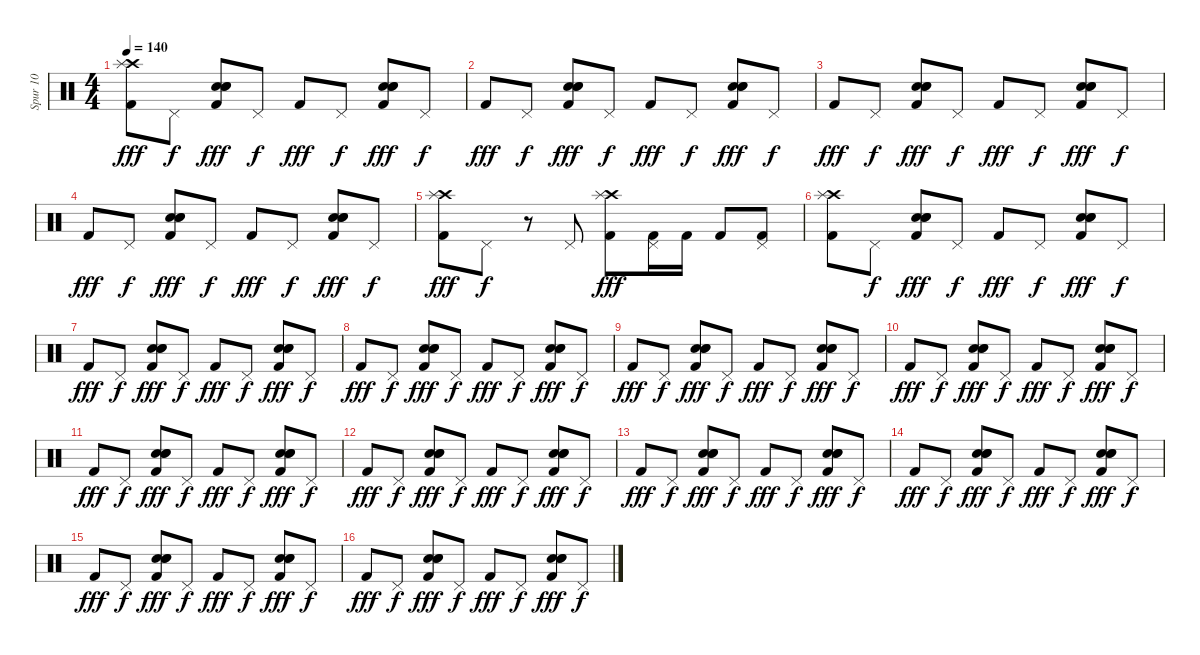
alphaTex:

\track ("Spur 10" "Spur 10") {instrument percussion}
\staff {score}
\articulation defaults
\ts (4 4)
\tempo 140
\clef neutral
\ks c
("Crash high (hit)" "Splash (hit)" "Kick (hit) 2").8{dy fff} "Pedal Hi-Hat (hit)".8{dy f} ("Electric Snare (hit)" "Hand Clap (hit)" "Snare (hit) 2" "Kick (hit) 2").8{dy fff} "Pedal Hi-Hat (hit)".8{dy f} "Kick (hit) 2".8{dy fff} "Pedal Hi-Hat (hit)".8{dy f} ("Electric Snare (hit)" "Hand Clap (hit)" "Snare (hit) 2" "Kick (hit) 2").8{dy fff} "Pedal Hi-Hat (hit)".8{dy f} |
"Kick (hit) 2".8{dy fff} "Pedal Hi-Hat (hit)".8{dy f} ("Electric Snare (hit)" "Hand Clap (hit)" "Snare (hit) 2" "Kick (hit) 2").8{dy fff} "Pedal Hi-Hat (hit)".8{dy f} "Kick (hit) 2".8{dy fff} "Pedal Hi-Hat (hit)".8{dy f} ("Electric Snare (hit)" "Hand Clap (hit)" "Snare (hit) 2" "Kick (hit) 2").8{dy fff} "Pedal Hi-Hat (hit)".8{dy f} |
"Kick (hit) 2".8{dy fff} "Pedal Hi-Hat (hit)".8{dy f} ("Electric Snare (hit)" "Hand Clap (hit)" "Snare (hit) 2" "Kick (hit) 2").8{dy fff} "Pedal Hi-Hat (hit)".8{dy f} "Kick (hit) 2".8{dy fff} "Pedal Hi-Hat (hit)".8{dy f} ("Hand Clap (hit)" "Electric Snare (hit)" "Snare (hit) 2" "Kick (hit) 2").8{dy fff} "Pedal Hi-Hat (hit)".8{dy f} |
"Kick (hit) 2".8{dy fff} "Pedal Hi-Hat (hit)".8{dy f} ("Hand Clap (hit)" "Electric Snare (hit)" "Snare (hit) 2" "Kick (hit) 2").8{dy fff} "Pedal Hi-Hat (hit)".8{dy f} "Kick (hit) 2".8{dy fff} "Pedal Hi-Hat (hit)".8{dy f} ("Electric Snare (hit)" "Hand Clap (hit)" "Snare (hit) 2" "Kick (hit) 2").8{dy fff} "Pedal Hi-Hat (hit)".8{dy f} |
("Crash high (hit)" "Splash (hit)" "Kick (hit) 2").8{dy fff} "Pedal Hi-Hat (hit)".8{dy f} r.8 "Pedal Hi-Hat (hit)".8 ("Crash high (hit)" "Splash (hit)" "Kick (hit) 2").8{dy fff} ("Pedal Hi-Hat (hit)" "Kick (hit) 2").16 "Kick (hit) 2".16 "Kick (hit) 2".8 ("Pedal Hi-Hat (hit)" "Kick (hit) 2").8 |
("Crash high (hit)" "Splash (hit)" "Kick (hit) 2").8 "Pedal Hi-Hat (hit)".8{dy f} ("Hand Clap (hit)" "Electric Snare (hit)" "Snare (hit) 2" "Kick (hit) 2").8{dy fff} "Pedal Hi-Hat (hit)".8{dy f} "Kick (hit) 2".8{dy fff} "Pedal Hi-Hat (hit)".8{dy f} ("Electric Snare (hit)" "Hand Clap (hit)" "Snare (hit) 2" "Kick (hit) 2").8{dy fff} "Pedal Hi-Hat (hit)".8{dy f} |
"Kick (hit) 2".8{dy fff} "Pedal Hi-Hat (hit)".8{dy f} ("Electric Snare (hit)" "Hand Clap (hit)" "Snare (hit) 2" "Kick (hit) 2").8{dy fff} "Pedal Hi-Hat (hit)".8{dy f} "Kick (hit) 2".8{dy fff} "Pedal Hi-Hat (hit)".8{dy f} ("Hand Clap (hit)" "Electric Snare (hit)" "Snare (hit) 2" "Kick (hit) 2").8{dy fff} "Pedal Hi-Hat (hit)".8{dy f} |
"Kick (hit) 2".8{dy fff} "Pedal Hi-Hat (hit)".8{dy f} ("Hand Clap (hit)" "Electric Snare (hit)" "Snare (hit) 2" "Kick (hit) 2").8{dy fff} "Pedal Hi-Hat (hit)".8{dy f} "Kick (hit) 2".8{dy fff} "Pedal Hi-Hat (hit)".8{dy f} ("Electric Snare (hit)" "Hand Clap (hit)" "Snare (hit) 2" "Kick (hit) 2").8{dy fff} "Pedal Hi-Hat (hit)".8{dy f} |
"Kick (hit) 2".8{dy fff} "Pedal Hi-Hat (hit)".8{dy f} ("Hand Clap (hit)" "Electric Snare (hit)" "Snare (hit) 2" "Kick (hit) 2").8{dy fff} "Pedal Hi-Hat (hit)".8{dy f} "Kick (hit) 2".8{dy fff} "Pedal Hi-Hat (hit)".8{dy f} ("Hand Clap (hit)" "Electric Snare (hit)" "Snare (hit) 2" "Kick (hit) 2").8{dy fff} "Pedal Hi-Hat (hit)".8{dy f} |
"Kick (hit) 2".8{dy fff} "Pedal Hi-Hat (hit)".8{dy f} ("Electric Snare (hit)" "Hand Clap (hit)" "Snare (hit) 2" "Kick (hit) 2").8{dy fff} "Pedal Hi-Hat (hit)".8{dy f} "Kick (hit) 2".8{dy fff} "Pedal Hi-Hat (hit)".8{dy f} ("Electric Snare (hit)" "Hand Clap (hit)" "Snare (hit) 2" "Kick (hit) 2").8{dy fff} "Pedal Hi-Hat (hit)".8{dy f} |
"Kick (hit) 2".8{dy fff} "Pedal Hi-Hat (hit)".8{dy f} ("Hand Clap (hit)" "Electric Snare (hit)" "Snare (hit) 2" "Kick (hit) 2").8{dy fff} "Pedal Hi-Hat (hit)".8{dy f} "Kick (hit) 2".8{dy fff} "Pedal Hi-Hat (hit)".8{dy f} ("Electric Snare (hit)" "Hand Clap (hit)" "Snare (hit) 2" "Kick (hit) 2").8{dy fff} "Pedal Hi-Hat (hit)".8{dy f} |
"Kick (hit) 2".8{dy fff} "Pedal Hi-Hat (hit)".8{dy f} ("Hand Clap (hit)" "Electric Snare (hit)" "Snare (hit) 2" "Kick (hit) 2").8{dy fff} "Pedal Hi-Hat (hit)".8{dy f} "Kick (hit) 2".8{dy fff} "Pedal Hi-Hat (hit)".8{dy f} ("Electric Snare (hit)" "Hand Clap (hit)" "Snare (hit) 2" "Kick (hit) 2").8{dy fff} "Pedal Hi-Hat (hit)".8{dy f} |
"Kick (hit) 2".8{dy fff} "Pedal Hi-Hat (hit)".8{dy f} ("Electric Snare (hit)" "Hand Clap (hit)" "Snare (hit) 2" "Kick (hit) 2").8{dy fff} "Pedal Hi-Hat (hit)".8{dy f} "Kick (hit) 2".8{dy fff} "Pedal Hi-Hat (hit)".8{dy f} ("Electric Snare (hit)" "Hand Clap (hit)" "Snare (hit) 2" "Kick (hit) 2").8{dy fff} "Pedal Hi-Hat (hit)".8{dy f} |
"Kick (hit) 2".8{dy fff} "Pedal Hi-Hat (hit)".8{dy f} ("Electric Snare (hit)" "Hand Clap (hit)" "Snare (hit) 2" "Kick (hit) 2").8{dy fff} "Pedal Hi-Hat (hit)".8{dy f} "Kick (hit) 2".8{dy fff} "Pedal Hi-Hat (hit)".8{dy f} ("Electric Snare (hit)" "Hand Clap (hit)" "Snare (hit) 2" "Kick (hit) 2").8{dy fff} "Pedal Hi-Hat (hit)".8{dy f} |
"Kick (hit) 2".8{dy fff} "Pedal Hi-Hat (hit)".8{dy f} ("Electric Snare (hit)" "Hand Clap (hit)" "Snare (hit) 2" "Kick (hit) 2").8{dy fff} "Pedal Hi-Hat (hit)".8{dy f} "Kick (hit) 2".8{dy fff} "Pedal Hi-Hat (hit)".8{dy f} ("Electric Snare (hit)" "Hand Clap (hit)" "Snare (hit) 2" "Kick (hit) 2").8{dy fff} "Pedal Hi-Hat (hit)".8{dy f} |
"Kick (hit) 2".8{dy fff} "Pedal Hi-Hat (hit)".8{dy f} ("Electric Snare (hit)" "Hand Clap (hit)" "Snare (hit) 2" "Kick (hit) 2").8{dy fff} "Pedal Hi-Hat (hit)".8{dy f} "Kick (hit) 2".8{dy fff} "Pedal Hi-Hat (hit)".8{dy f} ("Electric Snare (hit)" "Hand Clap (hit)" "Snare (hit) 2" "Kick (hit) 2").8{dy fff} "Pedal Hi-Hat (hit)".8{dy f}
